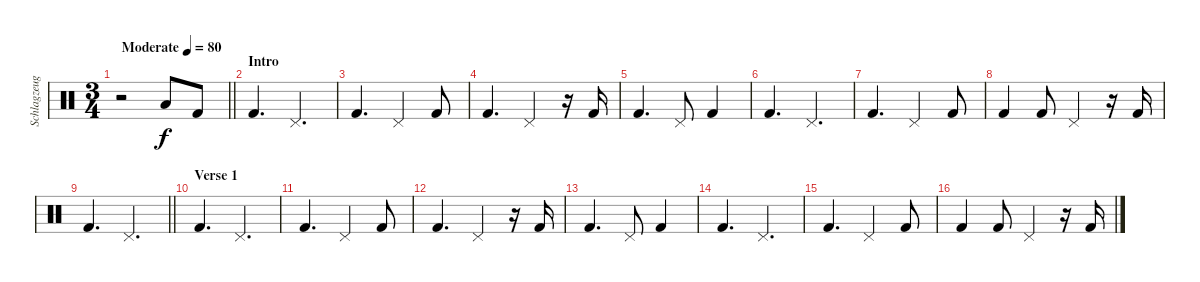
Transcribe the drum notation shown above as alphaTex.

\track ("Schlagzeug" "Schlagzeug") {instrument percussion}
\staff {score}
\articulation defaults
\ts (3 4)
\tempo (80 "Moderate")
\clef neutral
\barLineRight lightlight
\ks c
r.2{dy f} "Low Tom (hit)".8 "Kick (hit) 2".8 |
\section ("" "Intro")
"Kick (hit) 2".4{d} "Pedal Hi-Hat (hit)".4{d} |
"Kick (hit) 2".4{d} "Pedal Hi-Hat (hit)".4 "Kick (hit) 2".8 |
"Kick (hit) 2".4{d} "Pedal Hi-Hat (hit)".4 r.16 "Kick (hit) 2".16 |
"Kick (hit) 2".4{d} "Pedal Hi-Hat (hit)".8 "Kick (hit) 2".4 |
"Kick (hit) 2".4{d} "Pedal Hi-Hat (hit)".4{d} |
"Kick (hit) 2".4{d} "Pedal Hi-Hat (hit)".4 "Kick (hit) 2".8 |
"Kick (hit) 2".4 "Kick (hit) 2".8 "Pedal Hi-Hat (hit)".4 r.16 "Kick (hit) 2".16 |
\barLineRight lightlight "Kick (hit) 2".4{d} "Pedal Hi-Hat (hit)".4{d}
|
\section ("" "Verse 1")
"Kick (hit) 2".4{d} "Pedal Hi-Hat (hit)".4{d} |
"Kick (hit) 2".4{d} "Pedal Hi-Hat (hit)".4 "Kick (hit) 2".8 |
"Kick (hit) 2".4{d} "Pedal Hi-Hat (hit)".4 r.16 "Kick (hit) 2".16 |
"Kick (hit) 2".4{d} "Pedal Hi-Hat (hit)".8 "Kick (hit) 2".4 |
"Kick (hit) 2".4{d} "Pedal Hi-Hat (hit)".4{d} |
"Kick (hit) 2".4{d} "Pedal Hi-Hat (hit)".4 "Kick (hit) 2".8 |
"Kick (hit) 2".4 "Kick (hit) 2".8 "Pedal Hi-Hat (hit)".4 r.16 "Kick (hit) 2".16
